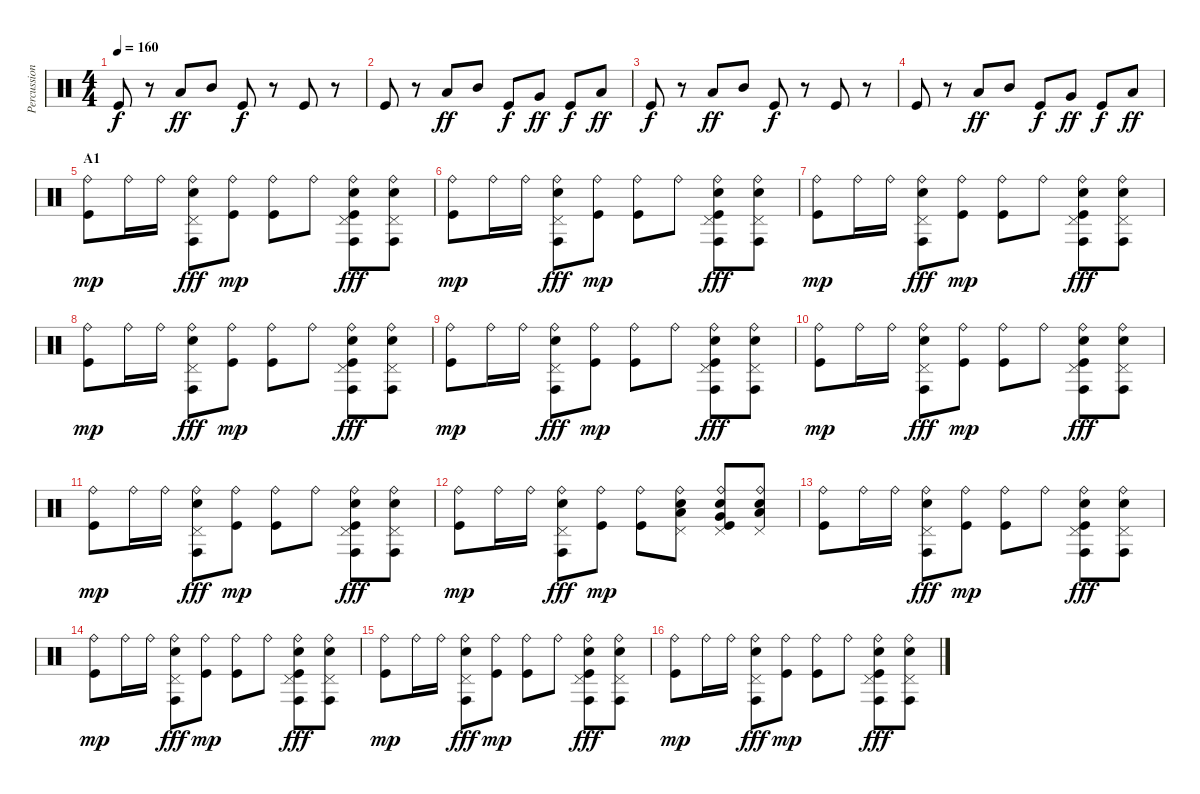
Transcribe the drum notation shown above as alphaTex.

\track ("Percussion" "Percussion") {instrument percussion}
\staff {score}
\articulation defaults
\ts (4 4)
\tempo 160
\clef neutral
\ks c "Kick (hit)".8{dy f}
r.8 "Low Tom (hit)".8{dy ff} "Mid Tom (hit)".8 "Kick (hit)".8{dy f} r.8 "Kick (hit)".8 r.8 |
"Kick (hit)".8 r.8 "Low Tom (hit)".8{dy ff} "Mid Tom (hit)".8 "Kick (hit)".8{dy f} "Very Low Tom (hit)".8{dy ff} "Kick (hit)".8{dy f} "Low Floor Tom (hit)".8{dy ff} |
"Kick (hit)".8{dy f} r.8 "Low Tom (hit)".8{dy ff} "Mid Tom (hit)".8 "Kick (hit)".8{dy f} r.8 "Kick (hit)".8 r.8 |
"Kick (hit)".8 r.8 "Low Tom (hit)".8{dy ff} "Mid Tom (hit)".8 "Kick (hit)".8{dy f} "Very Low Tom (hit)".8{dy ff} "Kick (hit)".8{dy f} "Low Floor Tom (hit)".8{dy ff} |
\section ("" "A1")
("Ride (bell)" "Kick (hit)").8{dy mp} "Ride (bell)".16 "Ride (bell)".16 ("Ride (bell)" "Pedal Hi-Hat (hit)" "Conga high (hit)" "Electric Snare (hit)").8{dy fff} ("Ride (bell)" "Kick (hit)").8{dy mp} ("Ride (bell)" "Kick (hit)").8 "Ride (bell)".8 ("Ride (bell)" "Pedal Hi-Hat (hit)" "Conga high (hit)" "Electric Snare (hit)" "Kick (hit)").8{dy fff} ("Ride (bell)" "Pedal Hi-Hat (hit)" "Conga high (hit)" "Electric Snare (hit)").8 |
("Ride (bell)" "Kick (hit)").8{dy mp} "Ride (bell)".16 "Ride (bell)".16 ("Ride (bell)" "Pedal Hi-Hat (hit)" "Conga high (hit)" "Electric Snare (hit)").8{dy fff} ("Ride (bell)" "Kick (hit)").8{dy mp} ("Ride (bell)" "Kick (hit)").8 "Ride (bell)".8 ("Ride (bell)" "Pedal Hi-Hat (hit)" "Conga high (hit)" "Electric Snare (hit)" "Kick (hit)").8{dy fff} ("Ride (bell)" "Pedal Hi-Hat (hit)" "Conga high (hit)" "Electric Snare (hit)").8 |
("Ride (bell)" "Kick (hit)").8{dy mp} "Ride (bell)".16 "Ride (bell)".16 ("Ride (bell)" "Pedal Hi-Hat (hit)" "Conga high (hit)" "Electric Snare (hit)").8{dy fff} ("Ride (bell)" "Kick (hit)").8{dy mp} ("Ride (bell)" "Kick (hit)").8 "Ride (bell)".8 ("Ride (bell)" "Pedal Hi-Hat (hit)" "Conga high (hit)" "Electric Snare (hit)" "Kick (hit)").8{dy fff} ("Ride (bell)" "Pedal Hi-Hat (hit)" "Conga high (hit)" "Electric Snare (hit)").8 |
("Ride (bell)" "Kick (hit)").8{dy mp} "Ride (bell)".16 "Ride (bell)".16 ("Ride (bell)" "Pedal Hi-Hat (hit)" "Conga high (hit)" "Electric Snare (hit)").8{dy fff} ("Ride (bell)" "Kick (hit)").8{dy mp} ("Ride (bell)" "Kick (hit)").8 "Ride (bell)".8 ("Ride (bell)" "Pedal Hi-Hat (hit)" "Conga high (hit)" "Electric Snare (hit)" "Kick (hit)").8{dy fff} ("Ride (bell)" "Pedal Hi-Hat (hit)" "Conga high (hit)" "Electric Snare (hit)").8 |
("Ride (bell)" "Kick (hit)").8{dy mp} "Ride (bell)".16 "Ride (bell)".16 ("Ride (bell)" "Pedal Hi-Hat (hit)" "Conga high (hit)" "Electric Snare (hit)").8{dy fff} ("Ride (bell)" "Kick (hit)").8{dy mp} ("Ride (bell)" "Kick (hit)").8 "Ride (bell)".8 ("Ride (bell)" "Pedal Hi-Hat (hit)" "Conga high (hit)" "Electric Snare (hit)" "Kick (hit)").8{dy fff} ("Ride (bell)" "Pedal Hi-Hat (hit)" "Conga high (hit)" "Electric Snare (hit)").8 |
("Ride (bell)" "Kick (hit)").8{dy mp} "Ride (bell)".16 "Ride (bell)".16 ("Ride (bell)" "Pedal Hi-Hat (hit)" "Conga high (hit)" "Electric Snare (hit)").8{dy fff} ("Ride (bell)" "Kick (hit)").8{dy mp} ("Ride (bell)" "Kick (hit)").8 "Ride (bell)".8 ("Ride (bell)" "Pedal Hi-Hat (hit)" "Conga high (hit)" "Electric Snare (hit)" "Kick (hit)").8{dy fff} ("Ride (bell)" "Pedal Hi-Hat (hit)" "Conga high (hit)" "Electric Snare (hit)").8 |
("Ride (bell)" "Kick (hit)").8{dy mp} "Ride (bell)".16 "Ride (bell)".16 ("Ride (bell)" "Pedal Hi-Hat (hit)" "Conga high (hit)" "Electric Snare (hit)").8{dy fff} ("Ride (bell)" "Kick (hit)").8{dy mp} ("Ride (bell)" "Kick (hit)").8 "Ride (bell)".8 ("Ride (bell)" "Pedal Hi-Hat (hit)" "Conga high (hit)" "Electric Snare (hit)" "Kick (hit)").8{dy fff} ("Ride (bell)" "Pedal Hi-Hat (hit)" "Conga high (hit)" "Electric Snare (hit)").8 |
("Ride (bell)" "Kick (hit)").8{dy mp} "Ride (bell)".16 "Ride (bell)".16 ("Ride (bell)" "Pedal Hi-Hat (hit)" "Conga high (hit)" "Electric Snare (hit)").8{dy fff} ("Ride (bell)" "Kick (hit)").8{dy mp} ("Ride (bell)" "Kick (hit)").8 ("Ride (bell)" "Pedal Hi-Hat (hit)" "Low Tom (hit)" "Electric Snare (hit)").8 ("Ride (bell)" "Pedal Hi-Hat (hit)" "Very Low Tom (hit)" "Electric Snare (hit)" "Kick (hit)").8 ("Ride (bell)" "Pedal Hi-Hat (hit)" "Low Floor Tom (hit)" "Electric Snare (hit)").8 |
("Ride (bell)" "Kick (hit)").8 "Ride (bell)".16 "Ride (bell)".16 ("Ride (bell)" "Pedal Hi-Hat (hit)" "Conga high (hit)" "Electric Snare (hit)").8{dy fff} ("Ride (bell)" "Kick (hit)").8{dy mp} ("Ride (bell)" "Kick (hit)").8 "Ride (bell)".8 ("Ride (bell)" "Pedal Hi-Hat (hit)" "Conga high (hit)" "Electric Snare (hit)" "Kick (hit)").8{dy fff} ("Ride (bell)" "Pedal Hi-Hat (hit)" "Conga high (hit)" "Electric Snare (hit)").8 |
("Ride (bell)" "Kick (hit)").8{dy mp} "Ride (bell)".16 "Ride (bell)".16 ("Ride (bell)" "Pedal Hi-Hat (hit)" "Conga high (hit)" "Electric Snare (hit)").8{dy fff} ("Ride (bell)" "Kick (hit)").8{dy mp} ("Ride (bell)" "Kick (hit)").8 "Ride (bell)".8 ("Ride (bell)" "Pedal Hi-Hat (hit)" "Conga high (hit)" "Electric Snare (hit)" "Kick (hit)").8{dy fff} ("Ride (bell)" "Pedal Hi-Hat (hit)" "Conga high (hit)" "Electric Snare (hit)").8 |
("Ride (bell)" "Kick (hit)").8{dy mp} "Ride (bell)".16 "Ride (bell)".16 ("Ride (bell)" "Pedal Hi-Hat (hit)" "Conga high (hit)" "Electric Snare (hit)").8{dy fff} ("Ride (bell)" "Kick (hit)").8{dy mp} ("Ride (bell)" "Kick (hit)").8 "Ride (bell)".8 ("Ride (bell)" "Pedal Hi-Hat (hit)" "Conga high (hit)" "Electric Snare (hit)" "Kick (hit)").8{dy fff} ("Ride (bell)" "Pedal Hi-Hat (hit)" "Conga high (hit)" "Electric Snare (hit)").8 |
("Ride (bell)" "Kick (hit)").8{dy mp} "Ride (bell)".16 "Ride (bell)".16 ("Ride (bell)" "Pedal Hi-Hat (hit)" "Conga high (hit)" "Electric Snare (hit)").8{dy fff} ("Ride (bell)" "Kick (hit)").8{dy mp} ("Ride (bell)" "Kick (hit)").8 "Ride (bell)".8 ("Ride (bell)" "Pedal Hi-Hat (hit)" "Conga high (hit)" "Electric Snare (hit)" "Kick (hit)").8{dy fff} ("Ride (bell)" "Pedal Hi-Hat (hit)" "Conga high (hit)" "Electric Snare (hit)").8
